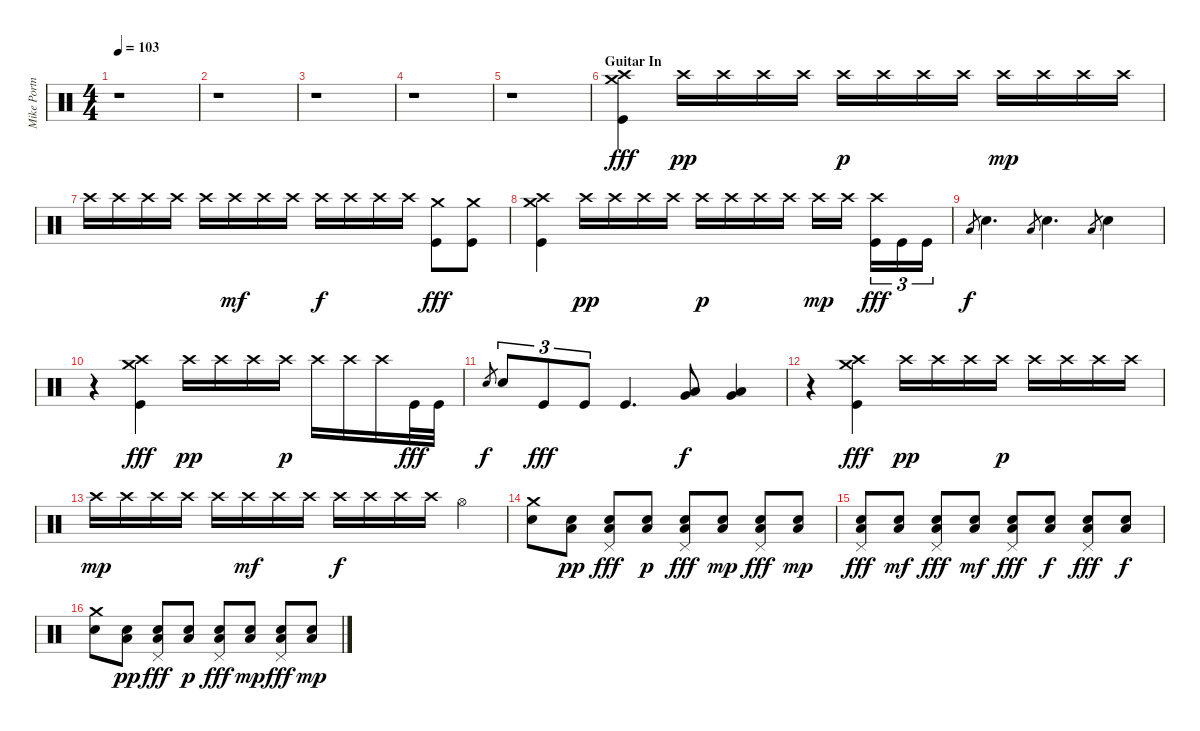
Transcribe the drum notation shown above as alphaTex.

\track ("Mike Portnoy" "Mike Portn") {instrument percussion}
\staff {score}
\articulation defaults
\ts (4 4)
\tempo 103
\clef neutral
\ks c
r.1{dy fff} |
r.1 |
r.1 |
r.1 |
r.1 |
\section ("" "Guitar In")
("Crash high (hit)" "Crash medium (hit)" "Kick (hit)").4 "Crash high (hit)".16{dy pp} "Crash high (hit)".16 "Crash high (hit)".16 "Crash high (hit)".16 "Crash high (hit)".16{dy p} "Crash high (hit)".16 "Crash high (hit)".16 "Crash high (hit)".16 "Crash high (hit)".16{dy mp} "Crash high (hit)".16 "Crash high (hit)".16 "Crash high (hit)".16 |
"Crash high (hit)".16 "Crash high (hit)".16 "Crash high (hit)".16 "Crash high (hit)".16 "Crash high (hit)".16 "Crash high (hit)".16{dy mf} "Crash high (hit)".16 "Crash high (hit)".16 "Crash high (hit)".16{dy f} "Crash high (hit)".16 "Crash high (hit)".16 "Crash high (hit)".16 ("Crash medium (hit)" "Kick (hit)").8{dy fff} ("Crash medium (hit)" "Kick (hit)").8 |
("Crash high (hit)" "Crash medium (hit)" "Kick (hit)").4 "Crash high (hit)".16{dy pp} "Crash high (hit)".16 "Crash high (hit)".16 "Crash high (hit)".16 "Crash high (hit)".16{dy p} "Crash high (hit)".16 "Crash high (hit)".16 "Crash high (hit)".16 "Crash high (hit)".16{dy mp} "Crash high (hit)".16 ("Crash high (hit)" "Kick (hit)").16{tu (3 2) dy fff} "Kick (hit)".16{tu (3 2)} "Kick (hit)".16{tu (3 2)} |
"Low Tom (hit)".8{gr dy f} "Electric Snare (hit)".4{d} "Low Tom (hit)".8{gr} "Electric Snare (hit)".4{d} "Low Tom (hit)".8{gr} "Electric Snare (hit)".4 |
r.4 ("Crash high (hit)" "Crash medium (hit)" "Kick (hit)").4{dy fff} "Crash high (hit)".16{dy pp} "Crash high (hit)".16 "Crash high (hit)".16 "Crash high (hit)".16{dy p} "Crash high (hit)".16 "Crash high (hit)".16 "Crash high (hit)".16 "Kick (hit)".32{dy fff} "Kick (hit)".32 |
"Electric Snare (hit)".8{gr dy f} "Electric Snare (hit)".8{tu (3 2)} "Kick (hit)".8{tu (3 2) dy fff} "Kick (hit)".8{tu (3 2)} "Kick (hit)".4{d} ("Low Tom (hit)" "Very Low Tom (hit)").8{dy f} ("Low Tom (hit)" "Very Low Tom (hit)").4 |
r.4 ("Crash high (hit)" "Crash medium (hit)" "Kick (hit)").4{dy fff} "Crash high (hit)".16{dy pp} "Crash high (hit)".16 "Crash high (hit)".16 "Crash high (hit)".16{dy p} "Crash high (hit)".16 "Crash high (hit)".16 "Crash high (hit)".16 "Crash high (hit)".16 |
"Crash high (hit)".16{dy mp} "Crash high (hit)".16 "Crash high (hit)".16 "Crash high (hit)".16 "Crash high (hit)".16 "Crash high (hit)".16{dy mf} "Crash high (hit)".16 "Crash high (hit)".16 "Crash high (hit)".16{dy f} "Crash high (hit)".16 "Crash high (hit)".16 "Crash high (hit)".16 "Hi-Hat (open)".4 |
("Crash medium (hit)" "Electric Snare (hit)").8 ("Low Tom (hit)" "Electric Snare (hit)").8{dy pp} ("Low Tom (hit)" "Electric Snare (hit)" "Pedal Hi-Hat (hit)").8{dy fff} ("Low Tom (hit)" "Electric Snare (hit)").8{dy p} ("Low Tom (hit)" "Electric Snare (hit)" "Pedal Hi-Hat (hit)").8{dy fff} ("Low Tom (hit)" "Electric Snare (hit)").8{dy mp} ("Low Tom (hit)" "Electric Snare (hit)" "Pedal Hi-Hat (hit)").8{dy fff} ("Low Tom (hit)" "Electric Snare (hit)").8{dy mp} |
("Low Tom (hit)" "Electric Snare (hit)" "Pedal Hi-Hat (hit)").8{dy fff} ("Low Tom (hit)" "Electric Snare (hit)").8{dy mf} ("Low Tom (hit)" "Electric Snare (hit)" "Pedal Hi-Hat (hit)").8{dy fff} ("Low Tom (hit)" "Electric Snare (hit)").8{dy mf} ("Low Tom (hit)" "Electric Snare (hit)" "Pedal Hi-Hat (hit)").8{dy fff} ("Low Tom (hit)" "Electric Snare (hit)").8{dy f} ("Low Tom (hit)" "Electric Snare (hit)" "Pedal Hi-Hat (hit)").8{dy fff} ("Low Tom (hit)" "Electric Snare (hit)").8{dy f} |
("Crash medium (hit)" "Electric Snare (hit)").8 ("Low Tom (hit)" "Electric Snare (hit)").8{dy pp} ("Low Tom (hit)" "Electric Snare (hit)" "Pedal Hi-Hat (hit)").8{dy fff} ("Low Tom (hit)" "Electric Snare (hit)").8{dy p} ("Low Tom (hit)" "Electric Snare (hit)" "Pedal Hi-Hat (hit)").8{dy fff} ("Low Tom (hit)" "Electric Snare (hit)").8{dy mp} ("Low Tom (hit)" "Electric Snare (hit)" "Pedal Hi-Hat (hit)").8{dy fff} ("Low Tom (hit)" "Electric Snare (hit)").8{dy mp}
